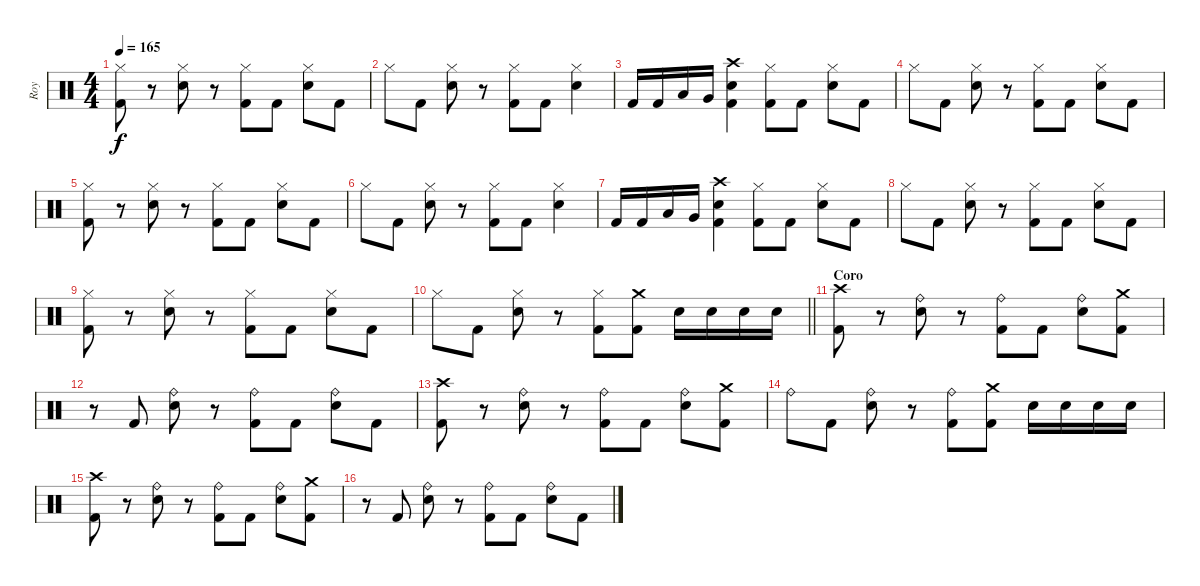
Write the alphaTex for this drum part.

\track ("Roy" "Roy") {instrument percussion}
\staff {score}
\articulation defaults
\ts (4 4)
\tempo 165
\clef neutral
\ks c
("Hi-Hat (closed)" "Kick (hit) 2").8{dy f} r.8 ("Hi-Hat (closed)" "Electric Snare (hit)").8 r.8 ("Hi-Hat (closed)" "Kick (hit) 2").8 "Kick (hit) 2".8 ("Hi-Hat (closed)" "Electric Snare (hit)").8 "Kick (hit) 2".8 |
"Hi-Hat (closed)".8 "Kick (hit) 2".8 ("Hi-Hat (closed)" "Electric Snare (hit)").8 r.8 ("Hi-Hat (closed)" "Kick (hit) 2").8 "Kick (hit) 2".8 ("Hi-Hat (closed)" "Electric Snare (hit)").4 |
"Kick (hit) 2".16 "Kick (hit) 2".16 "Low Tom (hit)".16 "Very Low Tom (hit)".16 ("Crash high (hit)" "Electric Snare (hit)" "Kick (hit) 2").4 ("Hi-Hat (closed)" "Kick (hit) 2").8 "Kick (hit) 2".8 ("Hi-Hat (closed)" "Electric Snare (hit)").8 "Kick (hit) 2".8 |
"Hi-Hat (closed)".8 "Kick (hit) 2".8 ("Hi-Hat (closed)" "Electric Snare (hit)").8 r.8 ("Hi-Hat (closed)" "Kick (hit) 2").8 "Kick (hit) 2".8 ("Hi-Hat (closed)" "Electric Snare (hit)").8 "Kick (hit) 2".8 |
("Hi-Hat (closed)" "Kick (hit) 2").8 r.8 ("Hi-Hat (closed)" "Electric Snare (hit)").8 r.8 ("Hi-Hat (closed)" "Kick (hit) 2").8 "Kick (hit) 2".8 ("Hi-Hat (closed)" "Electric Snare (hit)").8 "Kick (hit) 2".8 |
"Hi-Hat (closed)".8 "Kick (hit) 2".8 ("Hi-Hat (closed)" "Electric Snare (hit)").8 r.8 ("Hi-Hat (closed)" "Kick (hit) 2").8 "Kick (hit) 2".8 ("Hi-Hat (closed)" "Electric Snare (hit)").4 |
"Kick (hit) 2".16 "Kick (hit) 2".16 "Low Tom (hit)".16 "Very Low Tom (hit)".16 ("Crash high (hit)" "Electric Snare (hit)" "Kick (hit) 2").4 ("Hi-Hat (closed)" "Kick (hit) 2").8 "Kick (hit) 2".8 ("Hi-Hat (closed)" "Electric Snare (hit)").8 "Kick (hit) 2".8 |
"Hi-Hat (closed)".8 "Kick (hit) 2".8 ("Hi-Hat (closed)" "Electric Snare (hit)").8 r.8 ("Hi-Hat (closed)" "Kick (hit) 2").8 "Kick (hit) 2".8 ("Hi-Hat (closed)" "Electric Snare (hit)").8 "Kick (hit) 2".8 |
("Hi-Hat (closed)" "Kick (hit) 2").8 r.8 ("Hi-Hat (closed)" "Electric Snare (hit)").8 r.8 ("Hi-Hat (closed)" "Kick (hit) 2").8 "Kick (hit) 2".8 ("Hi-Hat (closed)" "Electric Snare (hit)").8 "Kick (hit) 2".8 |
\barLineRight lightlight "Hi-Hat (closed)".8 "Kick (hit) 2".8
("Hi-Hat (closed)" "Electric Snare (hit)").8 r.8 ("Hi-Hat (closed)" "Kick (hit) 2").8 ("Crash medium (hit)" "Kick (hit) 2").8 "Electric Snare (hit)".16 "Electric Snare (hit)".16 "Electric Snare (hit)".16 "Electric Snare (hit)".16 |
\section ("" "Coro")
("Crash high (hit)" "Kick (hit) 2").8 r.8 ("Ride (bell)" "Electric Snare (hit)").8 r.8 ("Ride (bell)" "Kick (hit) 2").8 "Kick (hit) 2".8 ("Ride (bell)" "Electric Snare (hit)").8 ("Crash medium (hit)" "Kick (hit) 2").8 |
r.8 "Kick (hit) 2".8 ("Ride (bell)" "Electric Snare (hit)").8 r.8 ("Ride (bell)" "Kick (hit) 2").8 "Kick (hit) 2".8 ("Ride (bell)" "Electric Snare (hit)").8 "Kick (hit) 2".8 |
("Crash high (hit)" "Kick (hit) 2").8 r.8 ("Ride (bell)" "Electric Snare (hit)").8 r.8 ("Ride (bell)" "Kick (hit) 2").8 "Kick (hit) 2".8 ("Ride (bell)" "Electric Snare (hit)").8 ("Crash medium (hit)" "Kick (hit) 2").8 |
"Ride (bell)".8 "Kick (hit) 2".8 ("Ride (bell)" "Electric Snare (hit)").8 r.8 ("Ride (bell)" "Kick (hit) 2").8 ("Crash medium (hit)" "Kick (hit) 2").8 "Electric Snare (hit)".16 "Electric Snare (hit)".16 "Electric Snare (hit)".16 "Electric Snare (hit)".16 |
("Crash high (hit)" "Kick (hit) 2").8 r.8 ("Ride (bell)" "Electric Snare (hit)").8 r.8 ("Ride (bell)" "Kick (hit) 2").8 "Kick (hit) 2".8 ("Ride (bell)" "Electric Snare (hit)").8 ("Crash medium (hit)" "Kick (hit) 2").8 |
r.8 "Kick (hit) 2".8 ("Ride (bell)" "Electric Snare (hit)").8 r.8 ("Ride (bell)" "Kick (hit) 2").8 "Kick (hit) 2".8 ("Ride (bell)" "Electric Snare (hit)").8 "Kick (hit) 2".8
